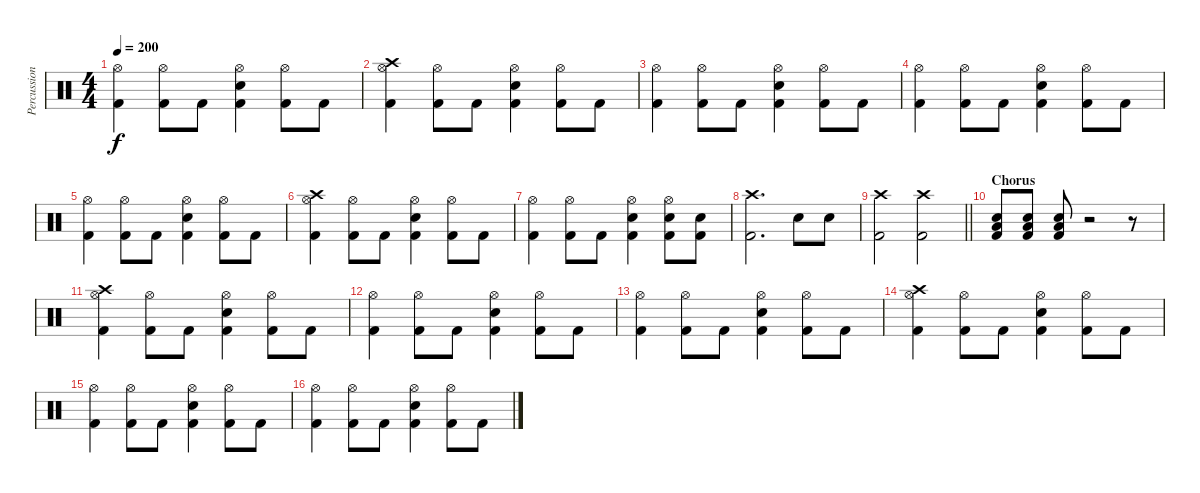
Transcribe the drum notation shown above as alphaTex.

\track ("Percussion" "Percussion") {instrument percussion}
\staff {score}
\articulation defaults
\ts (4 4)
\tempo 200
\clef neutral
\ks c
("Hi-Hat (open)" "Kick (hit) 2").4{dy f} ("Hi-Hat (open)" "Kick (hit) 2").8 "Kick (hit) 2".8 ("Hi-Hat (open)" "Snare (hit) 2" "Kick (hit) 2").4 ("Hi-Hat (open)" "Kick (hit) 2").8 "Kick (hit) 2".8 |
("Crash high (hit)" "Hi-Hat (open)" "Kick (hit) 2").4 ("Hi-Hat (open)" "Kick (hit) 2").8 "Kick (hit) 2".8 ("Hi-Hat (open)" "Snare (hit) 2" "Kick (hit) 2").4 ("Hi-Hat (open)" "Kick (hit) 2").8 "Kick (hit) 2".8 |
("Hi-Hat (open)" "Kick (hit) 2").4 ("Hi-Hat (open)" "Kick (hit) 2").8 "Kick (hit) 2".8 ("Hi-Hat (open)" "Snare (hit) 2" "Kick (hit) 2").4 ("Hi-Hat (open)" "Kick (hit) 2").8 "Kick (hit) 2".8 |
("Hi-Hat (open)" "Kick (hit) 2").4 ("Hi-Hat (open)" "Kick (hit) 2").8 "Kick (hit) 2".8 ("Hi-Hat (open)" "Snare (hit) 2" "Kick (hit) 2").4 ("Hi-Hat (open)" "Kick (hit) 2").8 "Kick (hit) 2".8 |
("Hi-Hat (open)" "Kick (hit) 2").4 ("Hi-Hat (open)" "Kick (hit) 2").8 "Kick (hit) 2".8 ("Hi-Hat (open)" "Snare (hit) 2" "Kick (hit) 2").4 ("Hi-Hat (open)" "Kick (hit) 2").8 "Kick (hit) 2".8 |
("Crash high (hit)" "Hi-Hat (open)" "Kick (hit) 2").4 ("Hi-Hat (open)" "Kick (hit) 2").8 "Kick (hit) 2".8 ("Hi-Hat (open)" "Snare (hit) 2" "Kick (hit) 2").4 ("Hi-Hat (open)" "Kick (hit) 2").8 "Kick (hit) 2".8 |
("Hi-Hat (open)" "Kick (hit) 2").4 ("Hi-Hat (open)" "Kick (hit) 2").8 "Kick (hit) 2".8 ("Hi-Hat (open)" "Snare (hit) 2" "Kick (hit) 2").4 ("Hi-Hat (open)" "Snare (hit) 2" "Kick (hit) 2").8 ("Snare (hit) 2" "Kick (hit) 2").8 |
("Crash high (hit)" "Kick (hit) 2").2{d} "Snare (hit) 2".8 "Snare (hit) 2".8 |
\barLineRight lightlight
("Crash high (hit)" "Kick (hit) 2").2 ("Crash high (hit)" "Kick (hit) 2").2 |
\section ("" "Chorus")
("Low Tom (hit)" "Snare (hit) 2" "Kick (hit) 2").8 ("Low Tom (hit)" "Snare (hit) 2" "Kick (hit) 2").8 ("Low Tom (hit)" "Snare (hit) 2" "Kick (hit) 2").8 r.2 r.8 |
("Crash high (hit)" "Hi-Hat (open)" "Kick (hit) 2").4 ("Hi-Hat (open)" "Kick (hit) 2").8 "Kick (hit) 2".8 ("Hi-Hat (open)" "Snare (hit) 2" "Kick (hit) 2").4 ("Hi-Hat (open)" "Kick (hit) 2").8 "Kick (hit) 2".8 |
("Hi-Hat (open)" "Kick (hit) 2").4 ("Hi-Hat (open)" "Kick (hit) 2").8 "Kick (hit) 2".8 ("Hi-Hat (open)" "Snare (hit) 2" "Kick (hit) 2").4 ("Hi-Hat (open)" "Kick (hit) 2").8 "Kick (hit) 2".8 |
("Hi-Hat (open)" "Kick (hit) 2").4 ("Hi-Hat (open)" "Kick (hit) 2").8 "Kick (hit) 2".8 ("Hi-Hat (open)" "Snare (hit) 2" "Kick (hit) 2").4 ("Hi-Hat (open)" "Kick (hit) 2").8 "Kick (hit) 2".8 |
("Crash high (hit)" "Hi-Hat (open)" "Kick (hit) 2").4 ("Hi-Hat (open)" "Kick (hit) 2").8 "Kick (hit) 2".8 ("Hi-Hat (open)" "Snare (hit) 2" "Kick (hit) 2").4 ("Hi-Hat (open)" "Kick (hit) 2").8 "Kick (hit) 2".8 |
("Hi-Hat (open)" "Kick (hit) 2").4 ("Hi-Hat (open)" "Kick (hit) 2").8 "Kick (hit) 2".8 ("Hi-Hat (open)" "Snare (hit) 2" "Kick (hit) 2").4 ("Hi-Hat (open)" "Kick (hit) 2").8 "Kick (hit) 2".8 |
("Hi-Hat (open)" "Kick (hit) 2").4 ("Hi-Hat (open)" "Kick (hit) 2").8 "Kick (hit) 2".8 ("Hi-Hat (open)" "Snare (hit) 2" "Kick (hit) 2").4 ("Hi-Hat (open)" "Kick (hit) 2").8 "Kick (hit) 2".8
